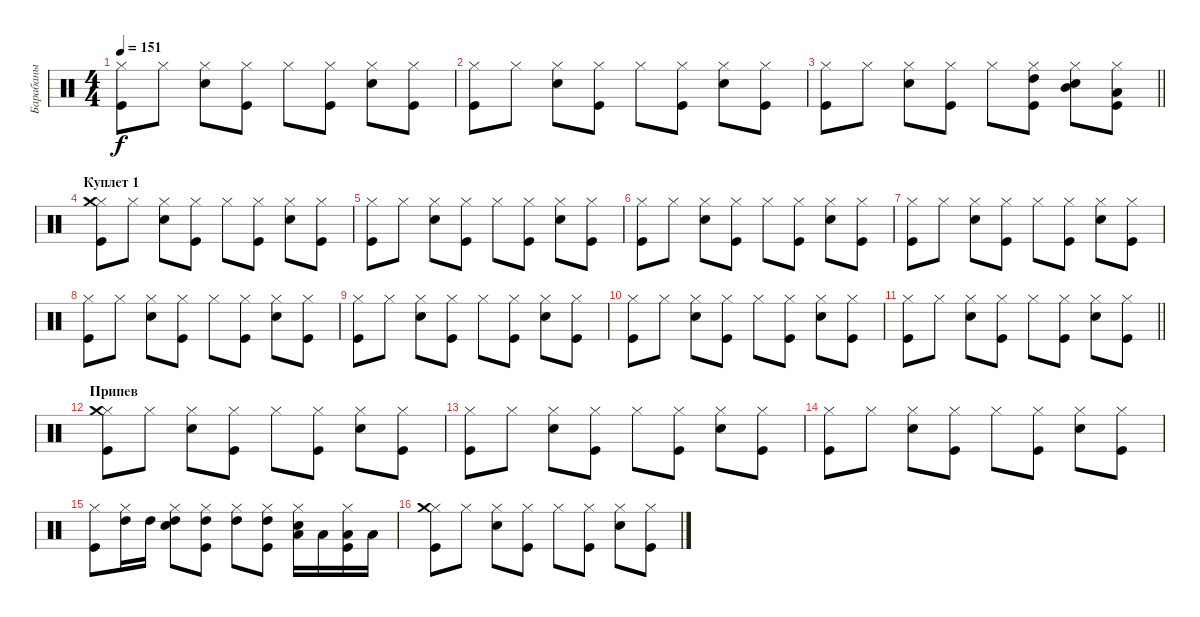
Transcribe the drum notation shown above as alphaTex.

\track ("Барабаны" "Барабаны") {instrument percussion}
\staff {score}
\articulation defaults
\ts (4 4)
\tempo 151
\clef neutral
\ks c
("Kick (hit)" "Hi-Hat (closed)").8{dy f} "Hi-Hat (closed)".8 ("Snare (hit) 2" "Hi-Hat (closed)").8 ("Kick (hit)" "Hi-Hat (closed)").8 "Hi-Hat (closed)".8 ("Kick (hit)" "Hi-Hat (closed)").8 ("Snare (hit) 2" "Hi-Hat (closed)").8 ("Kick (hit)" "Hi-Hat (closed)").8 |
("Kick (hit)" "Hi-Hat (closed)").8 "Hi-Hat (closed)".8 ("Snare (hit) 2" "Hi-Hat (closed)").8 ("Kick (hit)" "Hi-Hat (closed)").8 "Hi-Hat (closed)".8 ("Kick (hit)" "Hi-Hat (closed)").8 ("Snare (hit) 2" "Hi-Hat (closed)").8 ("Kick (hit)" "Hi-Hat (closed)").8 |
\barLineRight lightlight
("Kick (hit)" "Hi-Hat (closed)").8 "Hi-Hat (closed)".8 ("Snare (hit) 2" "Hi-Hat (closed)").8 ("Kick (hit)" "Hi-Hat (closed)").8 "Hi-Hat (closed)".8 ("Kick (hit)" "Hi-Hat (closed)" "High Tom (hit)").8 ("Snare (hit) 2" "Hi-Hat (closed)" "Mid Tom (hit)").8 ("Kick (hit)" "Hi-Hat (closed)" "Low Tom (hit)").8 |
\section ("" "Куплет 1")
("Kick (hit)" "Hi-Hat (closed)" "Crash medium (hit)").8 "Hi-Hat (closed)".8 ("Snare (hit) 2" "Hi-Hat (closed)").8 ("Kick (hit)" "Hi-Hat (closed)").8 "Hi-Hat (closed)".8 ("Kick (hit)" "Hi-Hat (closed)").8 ("Snare (hit) 2" "Hi-Hat (closed)").8 ("Kick (hit)" "Hi-Hat (closed)").8 |
("Kick (hit)" "Hi-Hat (closed)").8 "Hi-Hat (closed)".8 ("Snare (hit) 2" "Hi-Hat (closed)").8 ("Kick (hit)" "Hi-Hat (closed)").8 "Hi-Hat (closed)".8 ("Kick (hit)" "Hi-Hat (closed)").8 ("Snare (hit) 2" "Hi-Hat (closed)").8 ("Kick (hit)" "Hi-Hat (closed)").8 |
("Kick (hit)" "Hi-Hat (closed)").8 "Hi-Hat (closed)".8 ("Snare (hit) 2" "Hi-Hat (closed)").8 ("Kick (hit)" "Hi-Hat (closed)").8 "Hi-Hat (closed)".8 ("Kick (hit)" "Hi-Hat (closed)").8 ("Snare (hit) 2" "Hi-Hat (closed)").8 ("Kick (hit)" "Hi-Hat (closed)").8 |
("Kick (hit)" "Hi-Hat (closed)").8 "Hi-Hat (closed)".8 ("Snare (hit) 2" "Hi-Hat (closed)").8 ("Kick (hit)" "Hi-Hat (closed)").8 "Hi-Hat (closed)".8 ("Kick (hit)" "Hi-Hat (closed)").8 ("Snare (hit) 2" "Hi-Hat (closed)").8 ("Kick (hit)" "Hi-Hat (closed)").8 |
("Kick (hit)" "Hi-Hat (closed)").8 "Hi-Hat (closed)".8 ("Snare (hit) 2" "Hi-Hat (closed)").8 ("Kick (hit)" "Hi-Hat (closed)").8 "Hi-Hat (closed)".8 ("Kick (hit)" "Hi-Hat (closed)").8 ("Snare (hit) 2" "Hi-Hat (closed)").8 ("Kick (hit)" "Hi-Hat (closed)").8 |
("Kick (hit)" "Hi-Hat (closed)").8 "Hi-Hat (closed)".8 ("Snare (hit) 2" "Hi-Hat (closed)").8 ("Kick (hit)" "Hi-Hat (closed)").8 "Hi-Hat (closed)".8 ("Kick (hit)" "Hi-Hat (closed)").8 ("Snare (hit) 2" "Hi-Hat (closed)").8 ("Kick (hit)" "Hi-Hat (closed)").8 |
("Kick (hit)" "Hi-Hat (closed)").8 "Hi-Hat (closed)".8 ("Snare (hit) 2" "Hi-Hat (closed)").8 ("Kick (hit)" "Hi-Hat (closed)").8 "Hi-Hat (closed)".8 ("Kick (hit)" "Hi-Hat (closed)").8 ("Snare (hit) 2" "Hi-Hat (closed)").8 ("Kick (hit)" "Hi-Hat (closed)").8 |
\barLineRight lightlight
("Kick (hit)" "Hi-Hat (closed)").8 "Hi-Hat (closed)".8 ("Snare (hit) 2" "Hi-Hat (closed)").8 ("Kick (hit)" "Hi-Hat (closed)").8 "Hi-Hat (closed)".8 ("Kick (hit)" "Hi-Hat (closed)").8 ("Snare (hit) 2" "Hi-Hat (closed)").8 ("Kick (hit)" "Hi-Hat (closed)").8 |
\section ("" "Припев")
("Kick (hit)" "Hi-Hat (closed)" "Crash medium (hit)").8 "Hi-Hat (closed)".8 ("Snare (hit) 2" "Hi-Hat (closed)").8 ("Kick (hit)" "Hi-Hat (closed)").8 "Hi-Hat (closed)".8 ("Kick (hit)" "Hi-Hat (closed)").8 ("Snare (hit) 2" "Hi-Hat (closed)").8 ("Kick (hit)" "Hi-Hat (closed)").8 |
("Kick (hit)" "Hi-Hat (closed)").8 "Hi-Hat (closed)".8 ("Snare (hit) 2" "Hi-Hat (closed)").8 ("Kick (hit)" "Hi-Hat (closed)").8 "Hi-Hat (closed)".8 ("Kick (hit)" "Hi-Hat (closed)").8 ("Snare (hit) 2" "Hi-Hat (closed)").8 ("Kick (hit)" "Hi-Hat (closed)").8 |
("Kick (hit)" "Hi-Hat (closed)").8 "Hi-Hat (closed)".8 ("Snare (hit) 2" "Hi-Hat (closed)").8 ("Kick (hit)" "Hi-Hat (closed)").8 "Hi-Hat (closed)".8 ("Kick (hit)" "Hi-Hat (closed)").8 ("Snare (hit) 2" "Hi-Hat (closed)").8 ("Kick (hit)" "Hi-Hat (closed)").8 |
("Kick (hit)" "Hi-Hat (closed)").8 ("Hi-Hat (closed)" "High Tom (hit)").16 "High Tom (hit)".16 ("Snare (hit) 2" "Hi-Hat (closed)" "High Tom (hit)").8 ("Kick (hit)" "Hi-Hat (closed)" "High Tom (hit)").8 ("Hi-Hat (closed)" "High Tom (hit)").8 ("Kick (hit)" "Hi-Hat (closed)" "High Tom (hit)").8 ("Snare (hit) 2" "Hi-Hat (closed)" "Low Tom (hit)").16 "Low Tom (hit)".16 ("Kick (hit)" "Hi-Hat (closed)" "Low Tom (hit)").16 "Low Tom (hit)".16 |
("Kick (hit)" "Hi-Hat (closed)" "Crash medium (hit)").8 "Hi-Hat (closed)".8 ("Snare (hit) 2" "Hi-Hat (closed)").8 ("Kick (hit)" "Hi-Hat (closed)").8 "Hi-Hat (closed)".8 ("Kick (hit)" "Hi-Hat (closed)").8 ("Snare (hit) 2" "Hi-Hat (closed)").8 ("Kick (hit)" "Hi-Hat (closed)").8
